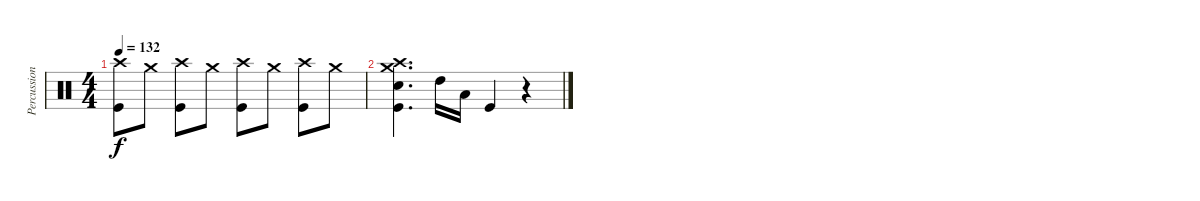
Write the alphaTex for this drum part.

\track ("Percussion" "Percussion") {instrument percussion}
\staff {score}
\articulation defaults
\ts (4 4)
\tempo 132
\clef neutral
\ks c
("Crash high (hit)" "Kick (hit)").8{dy f} "Crash medium (hit)".8 ("Crash high (hit)" "Kick (hit)").8 "Crash medium (hit)".8 ("Crash high (hit)" "Kick (hit)").8 "Crash medium (hit)".8 ("Crash high (hit)" "Kick (hit)").8 "Crash medium (hit)".8 |
("Crash high (hit)" "Crash medium (hit)" "Snare (hit) 2" "Kick (hit)").4{d} "High Tom (hit)".16 "Low Tom (hit)".16 "Kick (hit)".4 r.4
